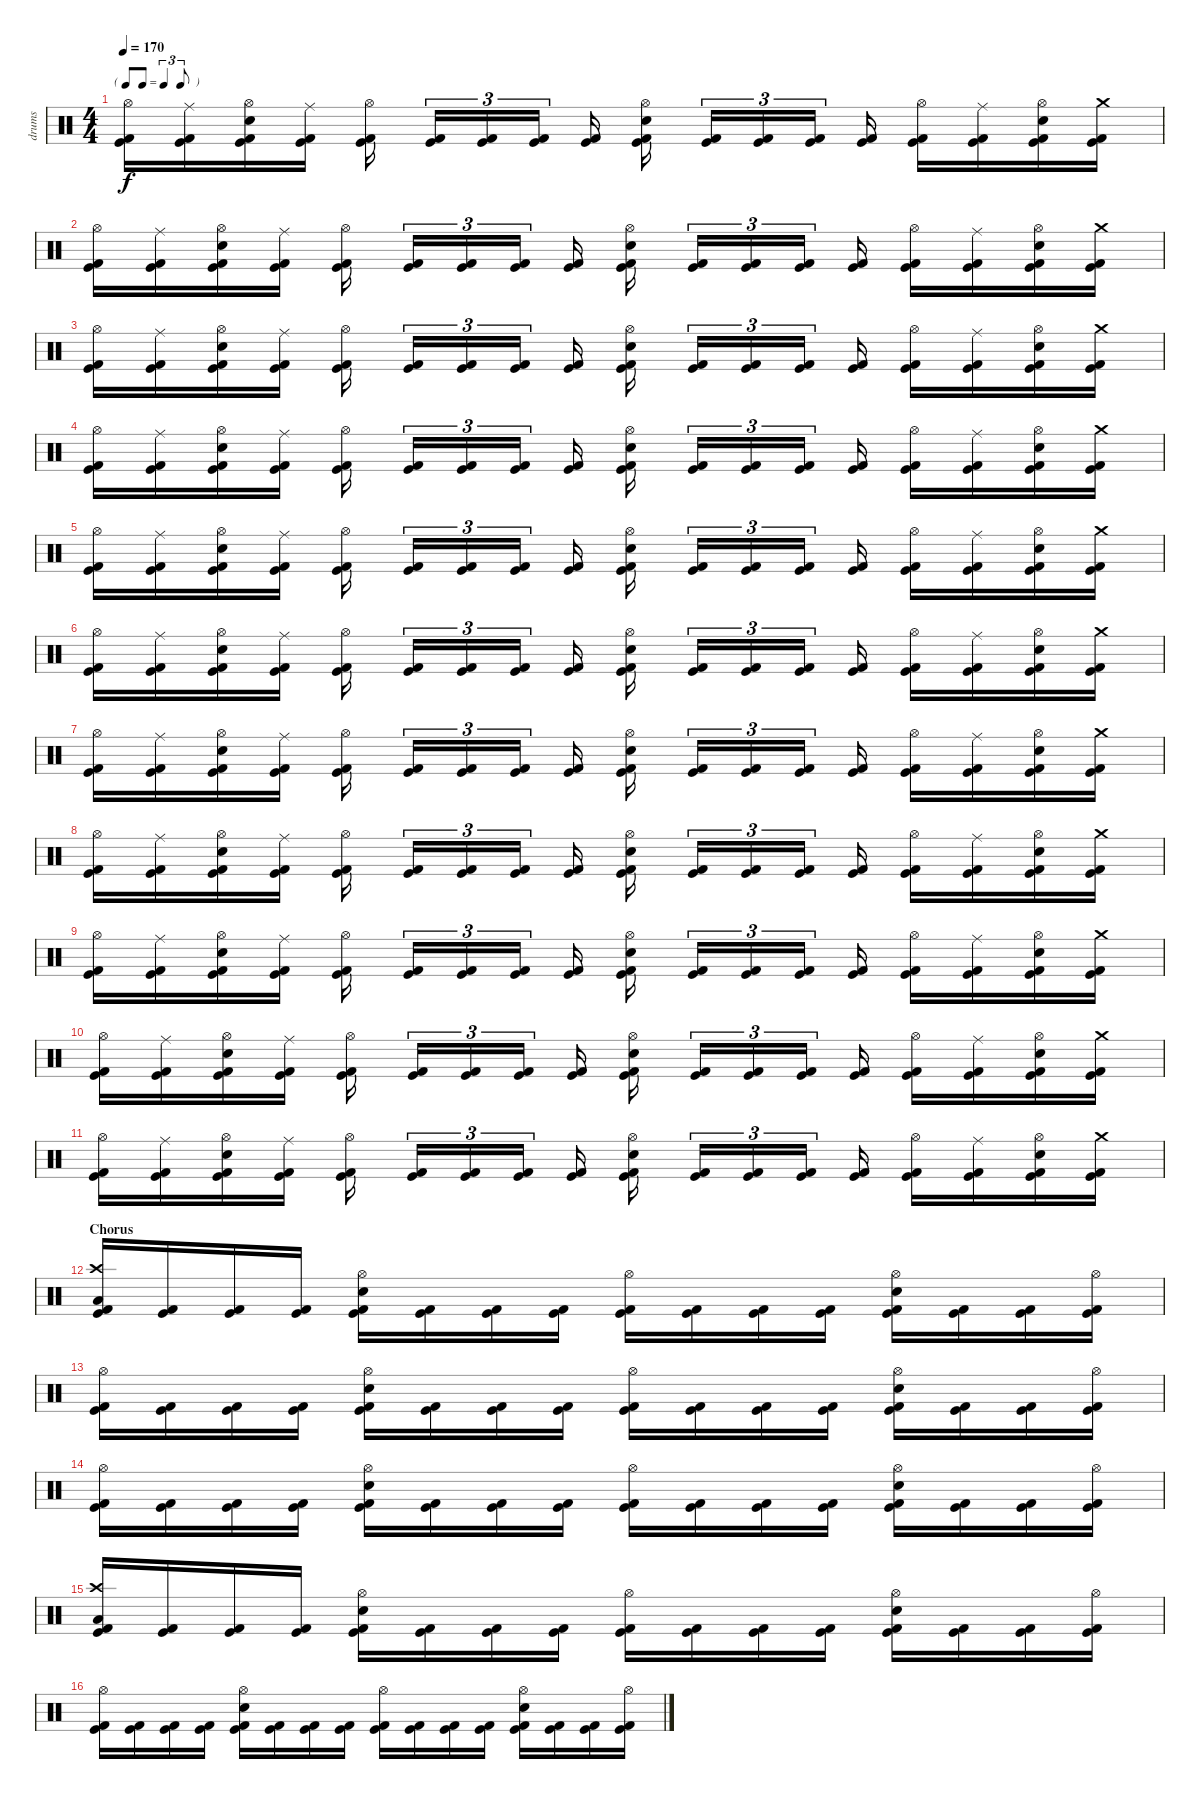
\track ("drums" "drums") {instrument percussion}
\staff {score}
\articulation defaults
\ts (4 4)
\tf triplet8th
\tempo 170
\clef neutral
\ks c
("Hi-Hat (open)" "Kick (hit)" "Kick (hit) 2").16{dy f} ("Ride (middle)" "Kick (hit)" "Kick (hit) 2").16 ("Hi-Hat (open)" "Snare (hit) 2" "Kick (hit)" "Kick (hit) 2").16 ("Ride (middle)" "Kick (hit)" "Kick (hit) 2").16 ("Hi-Hat (open)" "Kick (hit)" "Kick (hit) 2").16 ("Kick (hit)" "Kick (hit) 2").16{tu (3 2)} ("Kick (hit)" "Kick (hit) 2").16{tu (3 2)} ("Kick (hit)" "Kick (hit) 2").16{tu (3 2)} ("Kick (hit)" "Kick (hit) 2").16 ("Hi-Hat (open)" "Snare (hit) 2" "Kick (hit)" "Kick (hit) 2").16 ("Kick (hit)" "Kick (hit) 2").16{tu (3 2)} ("Kick (hit)" "Kick (hit) 2").16{tu (3 2)} ("Kick (hit)" "Kick (hit) 2").16{tu (3 2)} ("Kick (hit)" "Kick (hit) 2").16 ("Hi-Hat (open)" "Kick (hit)" "Kick (hit) 2").16 ("Ride (middle)" "Kick (hit)" "Kick (hit) 2").16 ("Hi-Hat (open)" "Snare (hit) 2" "Kick (hit)" "Kick (hit) 2").16 ("Crash medium (hit)" "Kick (hit)" "Kick (hit) 2").16 |
("Hi-Hat (open)" "Kick (hit)" "Kick (hit) 2").16 ("Ride (middle)" "Kick (hit)" "Kick (hit) 2").16 ("Hi-Hat (open)" "Snare (hit) 2" "Kick (hit)" "Kick (hit) 2").16 ("Ride (middle)" "Kick (hit)" "Kick (hit) 2").16 ("Hi-Hat (open)" "Kick (hit)" "Kick (hit) 2").16 ("Kick (hit)" "Kick (hit) 2").16{tu (3 2)} ("Kick (hit)" "Kick (hit) 2").16{tu (3 2)} ("Kick (hit)" "Kick (hit) 2").16{tu (3 2)} ("Kick (hit)" "Kick (hit) 2").16 ("Hi-Hat (open)" "Snare (hit) 2" "Kick (hit)" "Kick (hit) 2").16 ("Kick (hit)" "Kick (hit) 2").16{tu (3 2)} ("Kick (hit)" "Kick (hit) 2").16{tu (3 2)} ("Kick (hit)" "Kick (hit) 2").16{tu (3 2)} ("Kick (hit)" "Kick (hit) 2").16 ("Hi-Hat (open)" "Kick (hit)" "Kick (hit) 2").16 ("Ride (middle)" "Kick (hit)" "Kick (hit) 2").16 ("Hi-Hat (open)" "Snare (hit) 2" "Kick (hit)" "Kick (hit) 2").16 ("Crash medium (hit)" "Kick (hit)" "Kick (hit) 2").16 |
("Hi-Hat (open)" "Kick (hit)" "Kick (hit) 2").16 ("Ride (middle)" "Kick (hit)" "Kick (hit) 2").16 ("Hi-Hat (open)" "Snare (hit) 2" "Kick (hit)" "Kick (hit) 2").16 ("Ride (middle)" "Kick (hit)" "Kick (hit) 2").16 ("Hi-Hat (open)" "Kick (hit)" "Kick (hit) 2").16 ("Kick (hit)" "Kick (hit) 2").16{tu (3 2)} ("Kick (hit)" "Kick (hit) 2").16{tu (3 2)} ("Kick (hit)" "Kick (hit) 2").16{tu (3 2)} ("Kick (hit)" "Kick (hit) 2").16 ("Hi-Hat (open)" "Snare (hit) 2" "Kick (hit)" "Kick (hit) 2").16 ("Kick (hit)" "Kick (hit) 2").16{tu (3 2)} ("Kick (hit)" "Kick (hit) 2").16{tu (3 2)} ("Kick (hit)" "Kick (hit) 2").16{tu (3 2)} ("Kick (hit)" "Kick (hit) 2").16 ("Hi-Hat (open)" "Kick (hit)" "Kick (hit) 2").16 ("Ride (middle)" "Kick (hit)" "Kick (hit) 2").16 ("Hi-Hat (open)" "Snare (hit) 2" "Kick (hit)" "Kick (hit) 2").16 ("Crash medium (hit)" "Kick (hit)" "Kick (hit) 2").16 |
("Hi-Hat (open)" "Kick (hit)" "Kick (hit) 2").16 ("Ride (middle)" "Kick (hit)" "Kick (hit) 2").16 ("Hi-Hat (open)" "Snare (hit) 2" "Kick (hit)" "Kick (hit) 2").16 ("Ride (middle)" "Kick (hit)" "Kick (hit) 2").16 ("Hi-Hat (open)" "Kick (hit)" "Kick (hit) 2").16 ("Kick (hit)" "Kick (hit) 2").16{tu (3 2)} ("Kick (hit)" "Kick (hit) 2").16{tu (3 2)} ("Kick (hit)" "Kick (hit) 2").16{tu (3 2)} ("Kick (hit)" "Kick (hit) 2").16 ("Hi-Hat (open)" "Snare (hit) 2" "Kick (hit)" "Kick (hit) 2").16 ("Kick (hit)" "Kick (hit) 2").16{tu (3 2)} ("Kick (hit)" "Kick (hit) 2").16{tu (3 2)} ("Kick (hit)" "Kick (hit) 2").16{tu (3 2)} ("Kick (hit)" "Kick (hit) 2").16 ("Hi-Hat (open)" "Kick (hit)" "Kick (hit) 2").16 ("Ride (middle)" "Kick (hit)" "Kick (hit) 2").16 ("Hi-Hat (open)" "Snare (hit) 2" "Kick (hit)" "Kick (hit) 2").16 ("Crash medium (hit)" "Kick (hit)" "Kick (hit) 2").16 |
("Hi-Hat (open)" "Kick (hit)" "Kick (hit) 2").16 ("Ride (middle)" "Kick (hit)" "Kick (hit) 2").16 ("Hi-Hat (open)" "Snare (hit) 2" "Kick (hit)" "Kick (hit) 2").16 ("Ride (middle)" "Kick (hit)" "Kick (hit) 2").16 ("Hi-Hat (open)" "Kick (hit)" "Kick (hit) 2").16 ("Kick (hit)" "Kick (hit) 2").16{tu (3 2)} ("Kick (hit)" "Kick (hit) 2").16{tu (3 2)} ("Kick (hit)" "Kick (hit) 2").16{tu (3 2)} ("Kick (hit)" "Kick (hit) 2").16 ("Hi-Hat (open)" "Snare (hit) 2" "Kick (hit)" "Kick (hit) 2").16 ("Kick (hit)" "Kick (hit) 2").16{tu (3 2)} ("Kick (hit)" "Kick (hit) 2").16{tu (3 2)} ("Kick (hit)" "Kick (hit) 2").16{tu (3 2)} ("Kick (hit)" "Kick (hit) 2").16 ("Hi-Hat (open)" "Kick (hit)" "Kick (hit) 2").16 ("Ride (middle)" "Kick (hit)" "Kick (hit) 2").16 ("Hi-Hat (open)" "Snare (hit) 2" "Kick (hit)" "Kick (hit) 2").16 ("Crash medium (hit)" "Kick (hit)" "Kick (hit) 2").16 |
("Hi-Hat (open)" "Kick (hit)" "Kick (hit) 2").16 ("Ride (middle)" "Kick (hit)" "Kick (hit) 2").16 ("Hi-Hat (open)" "Snare (hit) 2" "Kick (hit)" "Kick (hit) 2").16 ("Ride (middle)" "Kick (hit)" "Kick (hit) 2").16 ("Hi-Hat (open)" "Kick (hit)" "Kick (hit) 2").16 ("Kick (hit)" "Kick (hit) 2").16{tu (3 2)} ("Kick (hit)" "Kick (hit) 2").16{tu (3 2)} ("Kick (hit)" "Kick (hit) 2").16{tu (3 2)} ("Kick (hit)" "Kick (hit) 2").16 ("Hi-Hat (open)" "Snare (hit) 2" "Kick (hit)" "Kick (hit) 2").16 ("Kick (hit)" "Kick (hit) 2").16{tu (3 2)} ("Kick (hit)" "Kick (hit) 2").16{tu (3 2)} ("Kick (hit)" "Kick (hit) 2").16{tu (3 2)} ("Kick (hit)" "Kick (hit) 2").16 ("Hi-Hat (open)" "Kick (hit)" "Kick (hit) 2").16 ("Ride (middle)" "Kick (hit)" "Kick (hit) 2").16 ("Hi-Hat (open)" "Snare (hit) 2" "Kick (hit)" "Kick (hit) 2").16 ("Crash medium (hit)" "Kick (hit)" "Kick (hit) 2").16 |
("Hi-Hat (open)" "Kick (hit)" "Kick (hit) 2").16 ("Ride (middle)" "Kick (hit)" "Kick (hit) 2").16 ("Hi-Hat (open)" "Snare (hit) 2" "Kick (hit)" "Kick (hit) 2").16 ("Ride (middle)" "Kick (hit)" "Kick (hit) 2").16 ("Hi-Hat (open)" "Kick (hit)" "Kick (hit) 2").16 ("Kick (hit)" "Kick (hit) 2").16{tu (3 2)} ("Kick (hit)" "Kick (hit) 2").16{tu (3 2)} ("Kick (hit)" "Kick (hit) 2").16{tu (3 2)} ("Kick (hit)" "Kick (hit) 2").16 ("Hi-Hat (open)" "Snare (hit) 2" "Kick (hit)" "Kick (hit) 2").16 ("Kick (hit)" "Kick (hit) 2").16{tu (3 2)} ("Kick (hit)" "Kick (hit) 2").16{tu (3 2)} ("Kick (hit)" "Kick (hit) 2").16{tu (3 2)} ("Kick (hit)" "Kick (hit) 2").16 ("Hi-Hat (open)" "Kick (hit)" "Kick (hit) 2").16 ("Ride (middle)" "Kick (hit)" "Kick (hit) 2").16 ("Hi-Hat (open)" "Snare (hit) 2" "Kick (hit)" "Kick (hit) 2").16 ("Crash medium (hit)" "Kick (hit)" "Kick (hit) 2").16 |
("Hi-Hat (open)" "Kick (hit)" "Kick (hit) 2").16 ("Ride (middle)" "Kick (hit)" "Kick (hit) 2").16 ("Hi-Hat (open)" "Snare (hit) 2" "Kick (hit)" "Kick (hit) 2").16 ("Ride (middle)" "Kick (hit)" "Kick (hit) 2").16 ("Hi-Hat (open)" "Kick (hit)" "Kick (hit) 2").16 ("Kick (hit)" "Kick (hit) 2").16{tu (3 2)} ("Kick (hit)" "Kick (hit) 2").16{tu (3 2)} ("Kick (hit)" "Kick (hit) 2").16{tu (3 2)} ("Kick (hit)" "Kick (hit) 2").16 ("Hi-Hat (open)" "Snare (hit) 2" "Kick (hit)" "Kick (hit) 2").16 ("Kick (hit)" "Kick (hit) 2").16{tu (3 2)} ("Kick (hit)" "Kick (hit) 2").16{tu (3 2)} ("Kick (hit)" "Kick (hit) 2").16{tu (3 2)} ("Kick (hit)" "Kick (hit) 2").16 ("Hi-Hat (open)" "Kick (hit)" "Kick (hit) 2").16 ("Ride (middle)" "Kick (hit)" "Kick (hit) 2").16 ("Hi-Hat (open)" "Snare (hit) 2" "Kick (hit)" "Kick (hit) 2").16 ("Crash medium (hit)" "Kick (hit)" "Kick (hit) 2").16 |
("Hi-Hat (open)" "Kick (hit)" "Kick (hit) 2").16 ("Ride (middle)" "Kick (hit)" "Kick (hit) 2").16 ("Hi-Hat (open)" "Snare (hit) 2" "Kick (hit)" "Kick (hit) 2").16 ("Ride (middle)" "Kick (hit)" "Kick (hit) 2").16 ("Hi-Hat (open)" "Kick (hit)" "Kick (hit) 2").16 ("Kick (hit)" "Kick (hit) 2").16{tu (3 2)} ("Kick (hit)" "Kick (hit) 2").16{tu (3 2)} ("Kick (hit)" "Kick (hit) 2").16{tu (3 2)} ("Kick (hit)" "Kick (hit) 2").16 ("Hi-Hat (open)" "Snare (hit) 2" "Kick (hit)" "Kick (hit) 2").16 ("Kick (hit)" "Kick (hit) 2").16{tu (3 2)} ("Kick (hit)" "Kick (hit) 2").16{tu (3 2)} ("Kick (hit)" "Kick (hit) 2").16{tu (3 2)} ("Kick (hit)" "Kick (hit) 2").16 ("Hi-Hat (open)" "Kick (hit)" "Kick (hit) 2").16 ("Ride (middle)" "Kick (hit)" "Kick (hit) 2").16 ("Hi-Hat (open)" "Snare (hit) 2" "Kick (hit)" "Kick (hit) 2").16 ("Crash medium (hit)" "Kick (hit)" "Kick (hit) 2").16 |
("Hi-Hat (open)" "Kick (hit)" "Kick (hit) 2").16 ("Ride (middle)" "Kick (hit)" "Kick (hit) 2").16 ("Hi-Hat (open)" "Snare (hit) 2" "Kick (hit)" "Kick (hit) 2").16 ("Ride (middle)" "Kick (hit)" "Kick (hit) 2").16 ("Hi-Hat (open)" "Kick (hit)" "Kick (hit) 2").16 ("Kick (hit)" "Kick (hit) 2").16{tu (3 2)} ("Kick (hit)" "Kick (hit) 2").16{tu (3 2)} ("Kick (hit)" "Kick (hit) 2").16{tu (3 2)} ("Kick (hit)" "Kick (hit) 2").16 ("Hi-Hat (open)" "Snare (hit) 2" "Kick (hit)" "Kick (hit) 2").16 ("Kick (hit)" "Kick (hit) 2").16{tu (3 2)} ("Kick (hit)" "Kick (hit) 2").16{tu (3 2)} ("Kick (hit)" "Kick (hit) 2").16{tu (3 2)} ("Kick (hit)" "Kick (hit) 2").16 ("Hi-Hat (open)" "Kick (hit)" "Kick (hit) 2").16 ("Ride (middle)" "Kick (hit)" "Kick (hit) 2").16 ("Hi-Hat (open)" "Snare (hit) 2" "Kick (hit)" "Kick (hit) 2").16 ("Crash medium (hit)" "Kick (hit)" "Kick (hit) 2").16 |
("Hi-Hat (open)" "Kick (hit)" "Kick (hit) 2").16 ("Ride (middle)" "Kick (hit)" "Kick (hit) 2").16 ("Hi-Hat (open)" "Snare (hit) 2" "Kick (hit)" "Kick (hit) 2").16 ("Ride (middle)" "Kick (hit)" "Kick (hit) 2").16 ("Hi-Hat (open)" "Kick (hit)" "Kick (hit) 2").16 ("Kick (hit)" "Kick (hit) 2").16{tu (3 2)} ("Kick (hit)" "Kick (hit) 2").16{tu (3 2)} ("Kick (hit)" "Kick (hit) 2").16{tu (3 2)} ("Kick (hit)" "Kick (hit) 2").16 ("Hi-Hat (open)" "Snare (hit) 2" "Kick (hit)" "Kick (hit) 2").16 ("Kick (hit)" "Kick (hit) 2").16{tu (3 2)} ("Kick (hit)" "Kick (hit) 2").16{tu (3 2)} ("Kick (hit)" "Kick (hit) 2").16{tu (3 2)} ("Kick (hit)" "Kick (hit) 2").16 ("Hi-Hat (open)" "Kick (hit)" "Kick (hit) 2").16 ("Ride (middle)" "Kick (hit)" "Kick (hit) 2").16 ("Hi-Hat (open)" "Snare (hit) 2" "Kick (hit)" "Kick (hit) 2").16 ("Crash medium (hit)" "Kick (hit)" "Kick (hit) 2").16 |
\section ("" "Chorus")
("Crash high (hit)" "Low Floor Tom (hit)" "Kick (hit)" "Kick (hit) 2").16 ("Kick (hit)" "Kick (hit) 2").16 ("Kick (hit)" "Kick (hit) 2").16 ("Kick (hit)" "Kick (hit) 2").16 ("Hi-Hat (open)" "Snare (hit) 2" "Kick (hit)" "Kick (hit) 2").16 ("Kick (hit)" "Kick (hit) 2").16 ("Kick (hit)" "Kick (hit) 2").16 ("Kick (hit)" "Kick (hit) 2").16 ("Hi-Hat (open)" "Kick (hit)" "Kick (hit) 2").16 ("Kick (hit)" "Kick (hit) 2").16 ("Kick (hit)" "Kick (hit) 2").16 ("Kick (hit)" "Kick (hit) 2").16 ("Hi-Hat (open)" "Snare (hit) 2" "Kick (hit)" "Kick (hit) 2").16 ("Kick (hit)" "Kick (hit) 2").16 ("Kick (hit)" "Kick (hit) 2").16 ("Hi-Hat (open)" "Kick (hit)" "Kick (hit) 2").16 |
("Hi-Hat (open)" "Kick (hit)" "Kick (hit) 2").16 ("Kick (hit)" "Kick (hit) 2").16 ("Kick (hit)" "Kick (hit) 2").16 ("Kick (hit)" "Kick (hit) 2").16 ("Hi-Hat (open)" "Snare (hit) 2" "Kick (hit)" "Kick (hit) 2").16 ("Kick (hit)" "Kick (hit) 2").16 ("Kick (hit)" "Kick (hit) 2").16 ("Kick (hit)" "Kick (hit) 2").16 ("Hi-Hat (open)" "Kick (hit)" "Kick (hit) 2").16 ("Kick (hit)" "Kick (hit) 2").16 ("Kick (hit)" "Kick (hit) 2").16 ("Kick (hit)" "Kick (hit) 2").16 ("Hi-Hat (open)" "Snare (hit) 2" "Kick (hit)" "Kick (hit) 2").16 ("Kick (hit)" "Kick (hit) 2").16 ("Kick (hit)" "Kick (hit) 2").16 ("Hi-Hat (open)" "Kick (hit)" "Kick (hit) 2").16 |
("Hi-Hat (open)" "Kick (hit)" "Kick (hit) 2").16 ("Kick (hit)" "Kick (hit) 2").16 ("Kick (hit)" "Kick (hit) 2").16 ("Kick (hit)" "Kick (hit) 2").16 ("Hi-Hat (open)" "Snare (hit) 2" "Kick (hit)" "Kick (hit) 2").16 ("Kick (hit)" "Kick (hit) 2").16 ("Kick (hit)" "Kick (hit) 2").16 ("Kick (hit)" "Kick (hit) 2").16 ("Hi-Hat (open)" "Kick (hit)" "Kick (hit) 2").16 ("Kick (hit)" "Kick (hit) 2").16 ("Kick (hit)" "Kick (hit) 2").16 ("Kick (hit)" "Kick (hit) 2").16 ("Hi-Hat (open)" "Snare (hit) 2" "Kick (hit)" "Kick (hit) 2").16 ("Kick (hit)" "Kick (hit) 2").16 ("Kick (hit)" "Kick (hit) 2").16 ("Hi-Hat (open)" "Kick (hit)" "Kick (hit) 2").16 |
("Crash high (hit)" "Low Floor Tom (hit)" "Kick (hit)" "Kick (hit) 2").16 ("Kick (hit)" "Kick (hit) 2").16 ("Kick (hit)" "Kick (hit) 2").16 ("Kick (hit)" "Kick (hit) 2").16 ("Hi-Hat (open)" "Snare (hit) 2" "Kick (hit)" "Kick (hit) 2").16 ("Kick (hit)" "Kick (hit) 2").16 ("Kick (hit)" "Kick (hit) 2").16 ("Kick (hit)" "Kick (hit) 2").16 ("Hi-Hat (open)" "Kick (hit)" "Kick (hit) 2").16 ("Kick (hit)" "Kick (hit) 2").16 ("Kick (hit)" "Kick (hit) 2").16 ("Kick (hit)" "Kick (hit) 2").16 ("Hi-Hat (open)" "Snare (hit) 2" "Kick (hit)" "Kick (hit) 2").16 ("Kick (hit)" "Kick (hit) 2").16 ("Kick (hit)" "Kick (hit) 2").16 ("Hi-Hat (open)" "Kick (hit)" "Kick (hit) 2").16 |
("Hi-Hat (open)" "Kick (hit)" "Kick (hit) 2").16 ("Kick (hit)" "Kick (hit) 2").16 ("Kick (hit)" "Kick (hit) 2").16 ("Kick (hit)" "Kick (hit) 2").16 ("Hi-Hat (open)" "Snare (hit) 2" "Kick (hit)" "Kick (hit) 2").16 ("Kick (hit)" "Kick (hit) 2").16 ("Kick (hit)" "Kick (hit) 2").16 ("Kick (hit)" "Kick (hit) 2").16 ("Hi-Hat (open)" "Kick (hit)" "Kick (hit) 2").16 ("Kick (hit)" "Kick (hit) 2").16 ("Kick (hit)" "Kick (hit) 2").16 ("Kick (hit)" "Kick (hit) 2").16 ("Hi-Hat (open)" "Snare (hit) 2" "Kick (hit)" "Kick (hit) 2").16 ("Kick (hit)" "Kick (hit) 2").16 ("Kick (hit)" "Kick (hit) 2").16 ("Hi-Hat (open)" "Kick (hit)" "Kick (hit) 2").16
